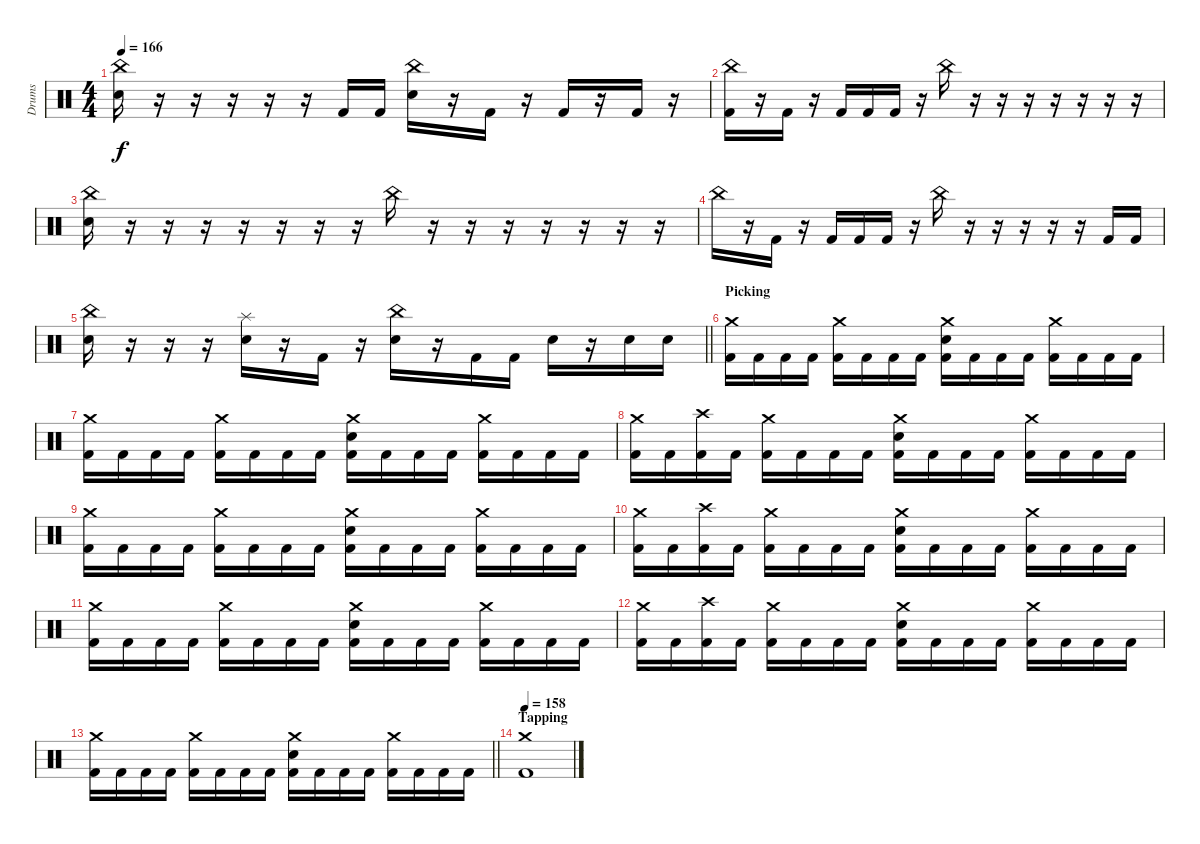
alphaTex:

\track ("Drums" "Drums") {instrument percussion}
\staff {score}
\articulation defaults
\ts (4 4)
\tempo 166
\clef neutral
\ks c
("China (hit)" "Electric Snare (hit)").16{dy f} r.16 r.16 r.16 r.16 r.16 "Kick (hit) 2".16 "Kick (hit) 2".16 ("China (hit)" "Electric Snare (hit)").16 r.16 "Kick (hit) 2".16 r.16 "Kick (hit) 2".16 r.16 "Kick (hit) 2".16 r.16 |
("China (hit)" "Kick (hit) 2").16 r.16 "Kick (hit) 2".16 r.16 "Kick (hit) 2".16 "Kick (hit) 2".16 "Kick (hit) 2".16 r.16 "China (hit)".16 r.16 r.16 r.16 r.16 r.16 r.16 r.16 |
("China (hit)" "Electric Snare (hit)").16 r.16 r.16 r.16 r.16 r.16 r.16 r.16 "China (hit)".16 r.16 r.16 r.16 r.16 r.16 r.16 r.16 |
"China (hit)".16 r.16 "Kick (hit) 2".16 r.16 "Kick (hit) 2".16 "Kick (hit) 2".16 "Kick (hit) 2".16 r.16 "China (hit)".16 r.16 r.16 r.16 r.16 r.16 "Kick (hit) 2".16 "Kick (hit) 2".16 |
\barLineRight lightlight
("China (hit)" "Electric Snare (hit)").16 r.16 r.16 r.16 ("Splash (hit)" "Electric Snare (hit)").16 r.16 "Kick (hit) 2".16 r.16 ("China (hit)" "Electric Snare (hit)").16 r.16 "Kick (hit) 2".16 "Kick (hit) 2".16 "Electric Snare (hit)".16 r.16 "Electric Snare (hit)".16 "Electric Snare (hit)".16 |
\section ("" "Picking")
("Crash medium (hit)" "Kick (hit) 2").16 "Kick (hit) 2".16 "Kick (hit) 2".16 "Kick (hit) 2".16 ("Crash medium (hit)" "Kick (hit) 2").16 "Kick (hit) 2".16 "Kick (hit) 2".16 "Kick (hit) 2".16 ("Crash medium (hit)" "Electric Snare (hit)" "Kick (hit) 2").16 "Kick (hit) 2".16 "Kick (hit) 2".16 "Kick (hit) 2".16 ("Crash medium (hit)" "Kick (hit) 2").16 "Kick (hit) 2".16 "Kick (hit) 2".16 "Kick (hit) 2".16 |
("Crash medium (hit)" "Kick (hit) 2").16 "Kick (hit) 2".16 "Kick (hit) 2".16 "Kick (hit) 2".16 ("Crash medium (hit)" "Kick (hit) 2").16 "Kick (hit) 2".16 "Kick (hit) 2".16 "Kick (hit) 2".16 ("Crash medium (hit)" "Electric Snare (hit)" "Kick (hit) 2").16 "Kick (hit) 2".16 "Kick (hit) 2".16 "Kick (hit) 2".16 ("Crash medium (hit)" "Kick (hit) 2").16 "Kick (hit) 2".16 "Kick (hit) 2".16 "Kick (hit) 2".16 |
("Crash medium (hit)" "Kick (hit) 2").16 "Kick (hit) 2".16 ("Crash high (hit)" "Kick (hit) 2").16 "Kick (hit) 2".16 ("Crash medium (hit)" "Kick (hit) 2").16 "Kick (hit) 2".16 "Kick (hit) 2".16 "Kick (hit) 2".16 ("Crash medium (hit)" "Electric Snare (hit)" "Kick (hit) 2").16 "Kick (hit) 2".16 "Kick (hit) 2".16 "Kick (hit) 2".16 ("Crash medium (hit)" "Kick (hit) 2").16 "Kick (hit) 2".16 "Kick (hit) 2".16 "Kick (hit) 2".16 |
("Crash medium (hit)" "Kick (hit) 2").16 "Kick (hit) 2".16 "Kick (hit) 2".16 "Kick (hit) 2".16 ("Crash medium (hit)" "Kick (hit) 2").16 "Kick (hit) 2".16 "Kick (hit) 2".16 "Kick (hit) 2".16 ("Crash medium (hit)" "Electric Snare (hit)" "Kick (hit) 2").16 "Kick (hit) 2".16 "Kick (hit) 2".16 "Kick (hit) 2".16 ("Crash medium (hit)" "Kick (hit) 2").16 "Kick (hit) 2".16 "Kick (hit) 2".16 "Kick (hit) 2".16 |
("Crash medium (hit)" "Kick (hit) 2").16 "Kick (hit) 2".16 ("Crash high (hit)" "Kick (hit) 2").16 "Kick (hit) 2".16 ("Crash medium (hit)" "Kick (hit) 2").16 "Kick (hit) 2".16 "Kick (hit) 2".16 "Kick (hit) 2".16 ("Crash medium (hit)" "Electric Snare (hit)" "Kick (hit) 2").16 "Kick (hit) 2".16 "Kick (hit) 2".16 "Kick (hit) 2".16 ("Crash medium (hit)" "Kick (hit) 2").16 "Kick (hit) 2".16 "Kick (hit) 2".16 "Kick (hit) 2".16 |
("Crash medium (hit)" "Kick (hit) 2").16 "Kick (hit) 2".16 "Kick (hit) 2".16 "Kick (hit) 2".16 ("Crash medium (hit)" "Kick (hit) 2").16 "Kick (hit) 2".16 "Kick (hit) 2".16 "Kick (hit) 2".16 ("Crash medium (hit)" "Electric Snare (hit)" "Kick (hit) 2").16 "Kick (hit) 2".16 "Kick (hit) 2".16 "Kick (hit) 2".16 ("Crash medium (hit)" "Kick (hit) 2").16 "Kick (hit) 2".16 "Kick (hit) 2".16 "Kick (hit) 2".16 |
("Crash medium (hit)" "Kick (hit) 2").16 "Kick (hit) 2".16 ("Crash high (hit)" "Kick (hit) 2").16 "Kick (hit) 2".16 ("Crash medium (hit)" "Kick (hit) 2").16 "Kick (hit) 2".16 "Kick (hit) 2".16 "Kick (hit) 2".16 ("Crash medium (hit)" "Electric Snare (hit)" "Kick (hit) 2").16 "Kick (hit) 2".16 "Kick (hit) 2".16 "Kick (hit) 2".16 ("Crash medium (hit)" "Kick (hit) 2").16 "Kick (hit) 2".16 "Kick (hit) 2".16 "Kick (hit) 2".16 |
\barLineRight lightlight
("Crash medium (hit)" "Kick (hit) 2").16 "Kick (hit) 2".16 "Kick (hit) 2".16 "Kick (hit) 2".16 ("Crash medium (hit)" "Kick (hit) 2").16 "Kick (hit) 2".16 "Kick (hit) 2".16 "Kick (hit) 2".16 ("Crash medium (hit)" "Electric Snare (hit)" "Kick (hit) 2").16 "Kick (hit) 2".16 "Kick (hit) 2".16 "Kick (hit) 2".16 ("Crash medium (hit)" "Kick (hit) 2").16 "Kick (hit) 2".16 "Kick (hit) 2".16 "Kick (hit) 2".16 |
\section ("" "Tapping")
\tempo 158
("Crash medium (hit)" "Kick (hit) 2").1
